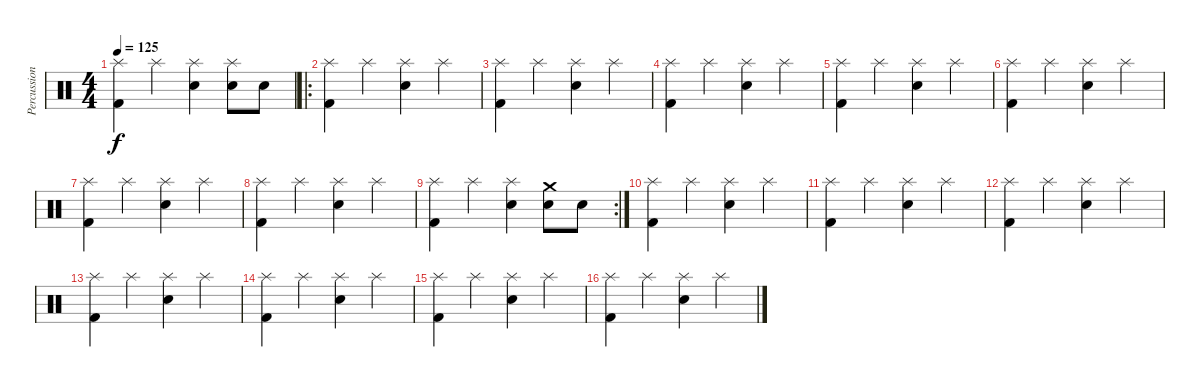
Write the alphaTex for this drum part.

\track ("Percussions" "Percussion") {instrument percussion}
\staff {score}
\articulation defaults
\ts (4 4)
\tempo 125
\clef neutral
\ks c
("Splash (hit)" "Kick (hit) 2").4{dy f} "Splash (hit)".4 ("Splash (hit)" "Electric Snare (hit)").4 ("Splash (hit)" "Electric Snare (hit)").8 "Electric Snare (hit)".8 |
\ro
("Splash (hit)" "Kick (hit) 2").4 "Splash (hit)".4 ("Splash (hit)" "Electric Snare (hit)").4 "Splash (hit)".4 |
("Splash (hit)" "Kick (hit) 2").4 "Splash (hit)".4 ("Splash (hit)" "Electric Snare (hit)").4 "Splash (hit)".4 |
("Splash (hit)" "Kick (hit) 2").4 "Splash (hit)".4 ("Splash (hit)" "Electric Snare (hit)").4 "Splash (hit)".4 |
("Splash (hit)" "Kick (hit) 2").4 "Splash (hit)".4 ("Splash (hit)" "Electric Snare (hit)").4 "Splash (hit)".4 |
("Splash (hit)" "Kick (hit) 2").4 "Splash (hit)".4 ("Splash (hit)" "Electric Snare (hit)").4 "Splash (hit)".4 |
("Splash (hit)" "Kick (hit) 2").4 "Splash (hit)".4 ("Splash (hit)" "Electric Snare (hit)").4 "Splash (hit)".4 |
("Splash (hit)" "Kick (hit) 2").4 "Splash (hit)".4 ("Splash (hit)" "Electric Snare (hit)").4 "Splash (hit)".4 |
\rc 2
("Splash (hit)" "Kick (hit) 2").4 "Splash (hit)".4 ("Splash (hit)" "Electric Snare (hit)").4 ("Crash medium (hit)" "Electric Snare (hit)").8 "Electric Snare (hit)".8 |
("Splash (hit)" "Kick (hit) 2").4 "Splash (hit)".4 ("Splash (hit)" "Electric Snare (hit)").4 "Splash (hit)".4 |
("Splash (hit)" "Kick (hit) 2").4 "Splash (hit)".4 ("Splash (hit)" "Electric Snare (hit)").4 "Splash (hit)".4 |
("Splash (hit)" "Kick (hit) 2").4 "Splash (hit)".4 ("Splash (hit)" "Electric Snare (hit)").4 "Splash (hit)".4 |
("Splash (hit)" "Kick (hit) 2").4 "Splash (hit)".4 ("Splash (hit)" "Electric Snare (hit)").4 "Splash (hit)".4 |
("Splash (hit)" "Kick (hit) 2").4 "Splash (hit)".4 ("Splash (hit)" "Electric Snare (hit)").4 "Splash (hit)".4 |
("Splash (hit)" "Kick (hit) 2").4 "Splash (hit)".4 ("Splash (hit)" "Electric Snare (hit)").4 "Splash (hit)".4 |
("Splash (hit)" "Kick (hit) 2").4 "Splash (hit)".4 ("Splash (hit)" "Electric Snare (hit)").4 "Splash (hit)".4
